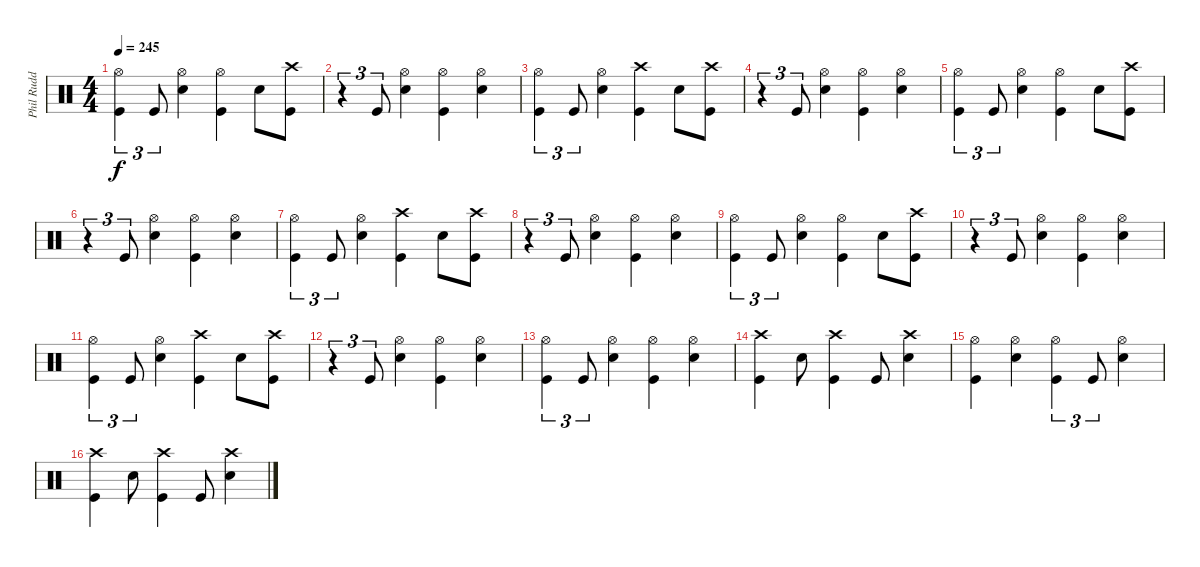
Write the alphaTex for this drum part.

\track ("Phil Rudd" "Phil Rudd") {instrument percussion}
\staff {score}
\articulation defaults
\ts (4 4)
\tempo 245
\clef neutral
\ks c
("Hi-Hat (open)" "Kick (hit)").4{tu (3 2) dy f} "Kick (hit)".8{tu (3 2)} ("Hi-Hat (open)" "Snare (hit) 2").4 ("Hi-Hat (open)" "Kick (hit)").4 "Snare (hit) 2".8 ("Crash high (hit)" "Kick (hit)").8 |
r.4{tu (3 2)} "Kick (hit)".8{tu (3 2)} ("Hi-Hat (open)" "Snare (hit) 2").4 ("Hi-Hat (open)" "Kick (hit)").4 ("Hi-Hat (open)" "Snare (hit) 2").4 |
("Hi-Hat (open)" "Kick (hit)").4{tu (3 2)} "Kick (hit)".8{tu (3 2)} ("Hi-Hat (open)" "Snare (hit) 2").4 ("Crash high (hit)" "Kick (hit)").4 "Snare (hit) 2".8 ("Crash high (hit)" "Kick (hit)").8 |
r.4{tu (3 2)} "Kick (hit)".8{tu (3 2)} ("Hi-Hat (open)" "Snare (hit) 2").4 ("Hi-Hat (open)" "Kick (hit)").4 ("Hi-Hat (open)" "Snare (hit) 2").4 |
("Hi-Hat (open)" "Kick (hit)").4{tu (3 2)} "Kick (hit)".8{tu (3 2)} ("Hi-Hat (open)" "Snare (hit) 2").4 ("Hi-Hat (open)" "Kick (hit)").4 "Snare (hit) 2".8 ("Crash high (hit)" "Kick (hit)").8 |
r.4{tu (3 2)} "Kick (hit)".8{tu (3 2)} ("Hi-Hat (open)" "Snare (hit) 2").4 ("Hi-Hat (open)" "Kick (hit)").4 ("Hi-Hat (open)" "Snare (hit) 2").4 |
("Hi-Hat (open)" "Kick (hit)").4{tu (3 2)} "Kick (hit)".8{tu (3 2)} ("Hi-Hat (open)" "Snare (hit) 2").4 ("Crash high (hit)" "Kick (hit)").4 "Snare (hit) 2".8 ("Crash high (hit)" "Kick (hit)").8 |
r.4{tu (3 2)} "Kick (hit)".8{tu (3 2)} ("Hi-Hat (open)" "Snare (hit) 2").4 ("Hi-Hat (open)" "Kick (hit)").4 ("Hi-Hat (open)" "Snare (hit) 2").4 |
("Hi-Hat (open)" "Kick (hit)").4{tu (3 2)} "Kick (hit)".8{tu (3 2)} ("Hi-Hat (open)" "Snare (hit) 2").4 ("Hi-Hat (open)" "Kick (hit)").4 "Snare (hit) 2".8 ("Crash high (hit)" "Kick (hit)").8 |
r.4{tu (3 2)} "Kick (hit)".8{tu (3 2)} ("Hi-Hat (open)" "Snare (hit) 2").4 ("Hi-Hat (open)" "Kick (hit)").4 ("Hi-Hat (open)" "Snare (hit) 2").4 |
("Hi-Hat (open)" "Kick (hit)").4{tu (3 2)} "Kick (hit)".8{tu (3 2)} ("Hi-Hat (open)" "Snare (hit) 2").4 ("Crash high (hit)" "Kick (hit)").4 "Snare (hit) 2".8 ("Crash high (hit)" "Kick (hit)").8 |
r.4{tu (3 2)} "Kick (hit)".8{tu (3 2)} ("Hi-Hat (open)" "Snare (hit) 2").4 ("Hi-Hat (open)" "Kick (hit)").4 ("Hi-Hat (open)" "Snare (hit) 2").4 |
("Hi-Hat (open)" "Kick (hit)").4{tu (3 2)} "Kick (hit)".8{tu (3 2)} ("Hi-Hat (open)" "Snare (hit) 2").4 ("Hi-Hat (open)" "Kick (hit)").4 ("Hi-Hat (open)" "Snare (hit) 2").4 |
("Crash high (hit)" "Kick (hit)").4 "Snare (hit) 2".8 ("Crash high (hit)" "Kick (hit)").4 "Kick (hit)".8 ("Crash high (hit)" "Snare (hit) 2").4 |
("Hi-Hat (open)" "Kick (hit)").4 ("Hi-Hat (open)" "Snare (hit) 2").4 ("Hi-Hat (open)" "Kick (hit)").4{tu (3 2)} "Kick (hit)".8{tu (3 2)} ("Hi-Hat (open)" "Snare (hit) 2").4 |
("Crash high (hit)" "Kick (hit)").4 "Snare (hit) 2".8 ("Crash high (hit)" "Kick (hit)").4 "Kick (hit)".8 ("Crash high (hit)" "Snare (hit) 2").4
